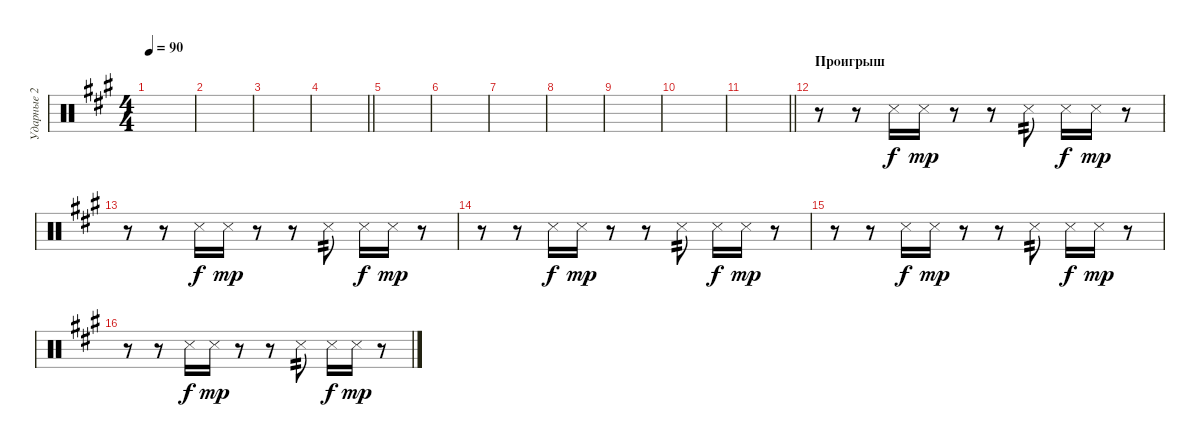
\track ("Ударные 2" "Ударные 2") {instrument percussion}
\staff {score}
\articulation defaults
\ts (4 4)
\tempo 90
\clef neutral
\ks f#minor
|
|
|
\barLineRight lightlight
|
|
|
|
|
|
|
\barLineRight lightlight
|
\section ("" "Проигрыш")
r.8 r.8 "Snare (side stick) 3".16 "Snare (side stick) 3".16{dy mp} r.8 r.8 "Snare (side stick) 3".8{tp 2} "Snare (side stick) 3".16{dy f} "Snare (side stick) 3".16{dy mp} r.8 |
r.8 r.8 "Snare (side stick) 3".16{dy f} "Snare (side stick) 3".16{dy mp} r.8 r.8 "Snare (side stick) 3".8{tp 2} "Snare (side stick) 3".16{dy f} "Snare (side stick) 3".16{dy mp} r.8 |
r.8 r.8 "Snare (side stick) 3".16{dy f} "Snare (side stick) 3".16{dy mp} r.8 r.8 "Snare (side stick) 3".8{tp 2} "Snare (side stick) 3".16{dy f} "Snare (side stick) 3".16{dy mp} r.8 |
r.8 r.8 "Snare (side stick) 3".16{dy f} "Snare (side stick) 3".16{dy mp} r.8 r.8 "Snare (side stick) 3".8{tp 2} "Snare (side stick) 3".16{dy f} "Snare (side stick) 3".16{dy mp} r.8 |
r.8 r.8 "Snare (side stick) 3".16{dy f} "Snare (side stick) 3".16{dy mp} r.8 r.8 "Snare (side stick) 3".8{tp 2} "Snare (side stick) 3".16{dy f} "Snare (side stick) 3".16{dy mp} r.8
